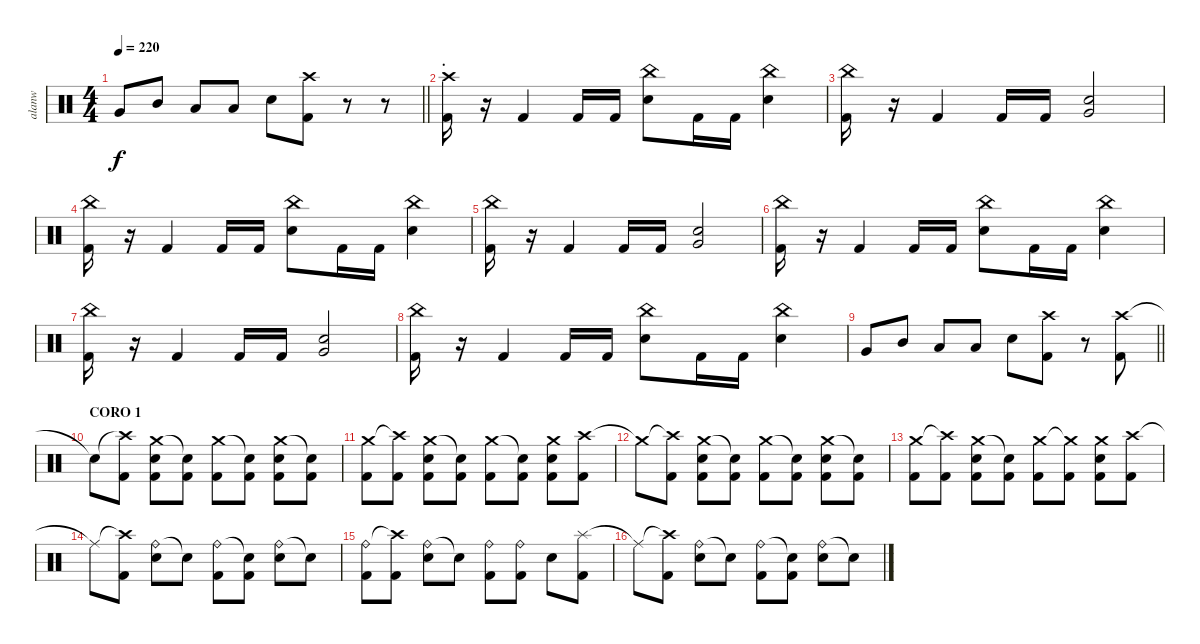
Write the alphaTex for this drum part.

\track ("alanw" "alanw") {instrument percussion}
\staff {score}
\articulation defaults
\ts (4 4)
\tempo 220
\clef neutral
\barLineRight lightlight
\ks c "Very Low Tom (hit)".8{dy f} "Mid Tom (hit)".8 "Low Tom (hit)".8 "Low Tom (hit)".8 "Electric Snare (hit)".8
("Crash high (hit)" "Kick (hit) 2").8 r.8 r.8 |
\section ("" ".")
("Crash high (hit)" "Kick (hit) 2").16 r.16 "Kick (hit) 2".4 "Kick (hit) 2".16 "Kick (hit) 2".16 ("China (hit)" "Electric Snare (hit)").8 "Kick (hit) 2".16 "Kick (hit) 2".16 ("China (hit)" "Electric Snare (hit)").4 |
("China (hit)" "Kick (hit) 2").16 r.16 "Kick (hit) 2".4 "Kick (hit) 2".16 "Kick (hit) 2".16 ("Very Low Tom (hit)" "Electric Snare (hit)").2 |
("China (hit)" "Kick (hit) 2").16 r.16 "Kick (hit) 2".4 "Kick (hit) 2".16 "Kick (hit) 2".16 ("China (hit)" "Electric Snare (hit)").8 "Kick (hit) 2".16 "Kick (hit) 2".16 ("China (hit)" "Electric Snare (hit)").4 |
("China (hit)" "Kick (hit) 2").16 r.16 "Kick (hit) 2".4 "Kick (hit) 2".16 "Kick (hit) 2".16 ("Very Low Tom (hit)" "Electric Snare (hit)").2 |
("China (hit)" "Kick (hit) 2").16 r.16 "Kick (hit) 2".4 "Kick (hit) 2".16 "Kick (hit) 2".16 ("China (hit)" "Electric Snare (hit)").8 "Kick (hit) 2".16 "Kick (hit) 2".16 ("China (hit)" "Electric Snare (hit)").4 |
("China (hit)" "Kick (hit) 2").16 r.16 "Kick (hit) 2".4 "Kick (hit) 2".16 "Kick (hit) 2".16 ("Very Low Tom (hit)" "Electric Snare (hit)").2 |
("China (hit)" "Kick (hit) 2").16 r.16 "Kick (hit) 2".4 "Kick (hit) 2".16 "Kick (hit) 2".16 ("China (hit)" "Electric Snare (hit)").8 "Kick (hit) 2".16 "Kick (hit) 2".16 ("China (hit)" "Electric Snare (hit)").4 |
\barLineRight lightlight "Very Low Tom (hit)".8 "Mid Tom (hit)".8 "Low Tom (hit)".8 "Low Tom (hit)".8 "Electric Snare (hit)".8
("Crash high (hit)" "Kick (hit) 2").8 r.8 ("Crash high (hit)" "Kick (hit) 2").8 |
\section ("" "CORO 1")
"Snare (hit)"{t}.8 ("Crash high (hit)"{t} "Kick (hit) 2").8 ("Crash medium (hit)" "Electric Snare (hit)" "Kick (hit) 2").8 ("Snare (hit)"{t} "Kick (hit) 2").8 ("Crash medium (hit)" "Kick (hit) 2").8 ("Snare (hit)"{t} "Kick (hit) 2").8 ("Crash medium (hit)" "Electric Snare (hit)" "Kick (hit) 2").8 ("Snare (hit)"{t} "Kick (hit) 2").8 |
("Crash medium (hit)" "Kick (hit) 2").8 ("Crash high (hit)"{t} "Kick (hit) 2").8 ("Crash medium (hit)" "Electric Snare (hit)" "Kick (hit) 2").8 ("Snare (hit)"{t} "Kick (hit) 2").8 ("Crash medium (hit)" "Kick (hit) 2").8 ("Snare (hit)"{t} "Kick (hit) 2").8 ("Crash medium (hit)" "Electric Snare (hit)" "Kick (hit) 2").8 ("Crash high (hit)" "Kick (hit) 2").8 |
"Crash medium (hit)"{t}.8 ("Crash high (hit)"{t} "Kick (hit) 2").8 ("Crash medium (hit)" "Electric Snare (hit)" "Kick (hit) 2").8 ("Snare (hit)"{t} "Kick (hit) 2").8 ("Crash medium (hit)" "Kick (hit) 2").8 ("Snare (hit)"{t} "Kick (hit) 2").8 ("Crash medium (hit)" "Electric Snare (hit)" "Kick (hit) 2").8 ("Snare (hit)"{t} "Kick (hit) 2").8 |
("Crash medium (hit)" "Kick (hit) 2").8 ("Crash high (hit)"{t} "Kick (hit) 2").8 ("Crash medium (hit)" "Electric Snare (hit)" "Kick (hit) 2").8 ("Snare (hit)"{t} "Kick (hit) 2").8 ("Crash medium (hit)" "Kick (hit) 2").8 ("Crash medium (hit)"{t} "Kick (hit) 2").8 ("Crash medium (hit)" "Electric Snare (hit)" "Kick (hit) 2").8 ("Crash high (hit)" "Kick (hit) 2").8 |
"Ride (middle)"{t}.8 ("Crash high (hit)"{t} "Kick (hit) 2").8 ("Ride (bell)" "Electric Snare (hit)").8 "Snare (hit)"{t}.8 ("Ride (bell)" "Kick (hit) 2").8 ("Snare (hit)"{t} "Kick (hit) 2").8 ("Ride (bell)" "Electric Snare (hit)").8 "Snare (hit)"{t}.8 |
("Ride (bell)" "Kick (hit) 2").8 ("Crash high (hit)"{t} "Kick (hit) 2").8 ("Ride (bell)" "Electric Snare (hit)").8 "Snare (hit)"{t}.8 ("Ride (bell)" "Kick (hit) 2").8 ("Ride (bell)" "Kick (hit) 2").8 "Electric Snare (hit)".8 ("Splash (hit)" "Kick (hit) 2").8 |
"Ride (middle)"{t}.8 ("Crash high (hit)"{t} "Kick (hit) 2").8 ("Ride (bell)" "Electric Snare (hit)").8 "Snare (hit)"{t}.8 ("Ride (bell)" "Kick (hit) 2").8 ("Snare (hit)"{t} "Kick (hit) 2").8 ("Ride (bell)" "Electric Snare (hit)").8 "Snare (hit)"{t}.8
